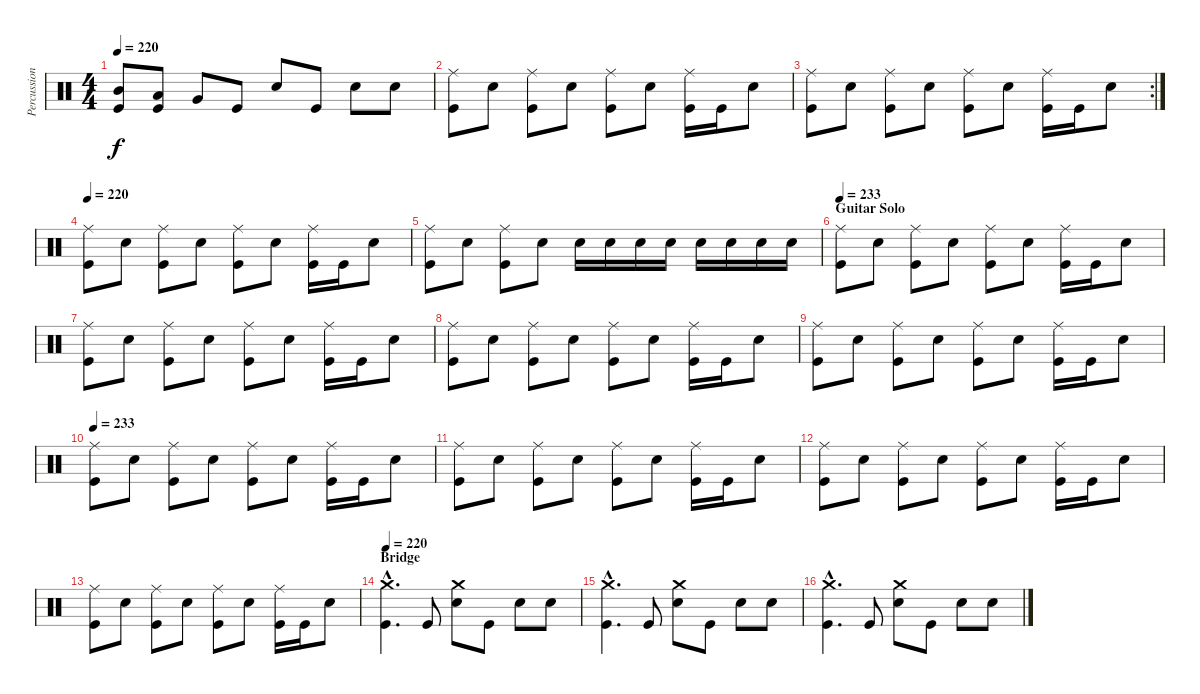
\track ("Percussion" "Percussion") {instrument percussion}
\staff {score}
\articulation defaults
\ts (4 4)
\tempo 220
\clef neutral
\ks c
("Mid Tom (hit)" "Kick (hit)").8{dy f} ("Low Tom (hit)" "Kick (hit)").8 "Very Low Tom (hit)".8 "Kick (hit)".8 "Electric Snare (hit)".8 "Kick (hit)".8 "Electric Snare (hit)".8 "Electric Snare (hit)".8 |
("Ride (middle)" "Kick (hit)").8 "Electric Snare (hit)".8 ("Ride (middle)" "Kick (hit)").8 "Electric Snare (hit)".8 ("Ride (middle)" "Kick (hit)").8 "Electric Snare (hit)".8 ("Ride (middle)" "Kick (hit)").16 "Kick (hit)".16 "Electric Snare (hit)".8 |
\rc 2
("Ride (middle)" "Kick (hit)").8 "Electric Snare (hit)".8 ("Ride (middle)" "Kick (hit)").8 "Electric Snare (hit)".8 ("Ride (middle)" "Kick (hit)").8 "Electric Snare (hit)".8 ("Ride (middle)" "Kick (hit)").16 "Kick (hit)".16 "Electric Snare (hit)".8 |
\tempo 220
("Ride (middle)" "Kick (hit)").8 "Electric Snare (hit)".8 ("Ride (middle)" "Kick (hit)").8 "Electric Snare (hit)".8 ("Ride (middle)" "Kick (hit)").8 "Electric Snare (hit)".8 ("Ride (middle)" "Kick (hit)").16 "Kick (hit)".16 "Electric Snare (hit)".8 |
("Ride (middle)" "Kick (hit)").8 "Electric Snare (hit)".8 ("Ride (middle)" "Kick (hit)").8 "Electric Snare (hit)".8 "Electric Snare (hit)".16 "Electric Snare (hit)".16 "Electric Snare (hit)".16 "Electric Snare (hit)".16 "Electric Snare (hit)".16 "Electric Snare (hit)".16 "Electric Snare (hit)".16 "Electric Snare (hit)".16 |
\section ("" "Guitar Solo")
\tempo 220
\tempo 233
("Ride (middle)" "Kick (hit)").8 "Electric Snare (hit)".8 ("Ride (middle)" "Kick (hit)").8 "Electric Snare (hit)".8 ("Ride (middle)" "Kick (hit)").8 "Electric Snare (hit)".8 ("Ride (middle)" "Kick (hit)").16 "Kick (hit)".16 "Electric Snare (hit)".8 |
("Ride (middle)" "Kick (hit)").8 "Electric Snare (hit)".8 ("Ride (middle)" "Kick (hit)").8 "Electric Snare (hit)".8 ("Ride (middle)" "Kick (hit)").8 "Electric Snare (hit)".8 ("Ride (middle)" "Kick (hit)").16 "Kick (hit)".16 "Electric Snare (hit)".8 |
("Ride (middle)" "Kick (hit)").8 "Electric Snare (hit)".8 ("Ride (middle)" "Kick (hit)").8 "Electric Snare (hit)".8 ("Ride (middle)" "Kick (hit)").8 "Electric Snare (hit)".8 ("Ride (middle)" "Kick (hit)").16 "Kick (hit)".16 "Electric Snare (hit)".8 |
("Ride (middle)" "Kick (hit)").8 "Electric Snare (hit)".8 ("Ride (middle)" "Kick (hit)").8 "Electric Snare (hit)".8 ("Ride (middle)" "Kick (hit)").8 "Electric Snare (hit)".8 ("Ride (middle)" "Kick (hit)").16 "Kick (hit)".16 "Electric Snare (hit)".8 |
\tempo 220
\tempo 233
("Ride (middle)" "Kick (hit)").8 "Electric Snare (hit)".8 ("Ride (middle)" "Kick (hit)").8 "Electric Snare (hit)".8 ("Ride (middle)" "Kick (hit)").8 "Electric Snare (hit)".8 ("Ride (middle)" "Kick (hit)").16 "Kick (hit)".16 "Electric Snare (hit)".8 |
("Ride (middle)" "Kick (hit)").8 "Electric Snare (hit)".8 ("Ride (middle)" "Kick (hit)").8 "Electric Snare (hit)".8 ("Ride (middle)" "Kick (hit)").8 "Electric Snare (hit)".8 ("Ride (middle)" "Kick (hit)").16 "Kick (hit)".16 "Electric Snare (hit)".8 |
("Ride (middle)" "Kick (hit)").8 "Electric Snare (hit)".8 ("Ride (middle)" "Kick (hit)").8 "Electric Snare (hit)".8 ("Ride (middle)" "Kick (hit)").8 "Electric Snare (hit)".8 ("Ride (middle)" "Kick (hit)").16 "Kick (hit)".16 "Electric Snare (hit)".8 |
("Ride (middle)" "Kick (hit)").8 "Electric Snare (hit)".8 ("Ride (middle)" "Kick (hit)").8 "Electric Snare (hit)".8 ("Ride (middle)" "Kick (hit)").8 "Electric Snare (hit)".8 ("Ride (middle)" "Kick (hit)").16 "Kick (hit)".16 "Electric Snare (hit)".8 |
\section ("" "Bridge")
\tempo 220
("Crash medium (hit)"{hac} "Kick (hit)"{hac}).4{d} "Kick (hit)".8 ("Crash medium (hit)" "Electric Snare (hit)").8 "Kick (hit)".8 "Electric Snare (hit)".8 "Electric Snare (hit)".8 |
("Crash medium (hit)"{hac} "Kick (hit)"{hac}).4{d} "Kick (hit)".8 ("Crash medium (hit)" "Electric Snare (hit)").8 "Kick (hit)".8 "Electric Snare (hit)".8 "Electric Snare (hit)".8 |
("Crash medium (hit)"{hac} "Kick (hit)"{hac}).4{d} "Kick (hit)".8 ("Crash medium (hit)" "Electric Snare (hit)").8 "Kick (hit)".8 "Electric Snare (hit)".8 "Electric Snare (hit)".8
